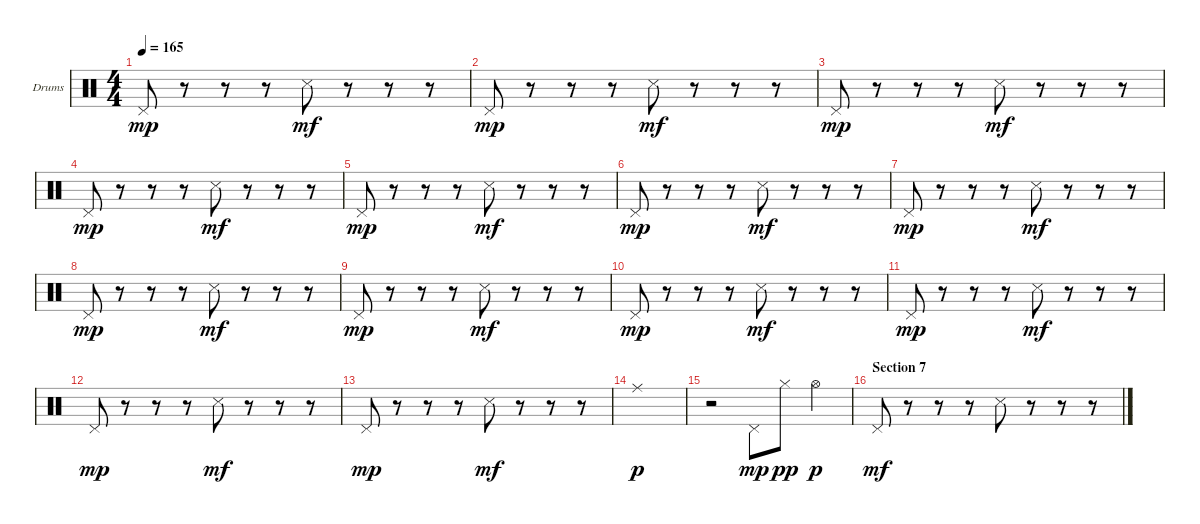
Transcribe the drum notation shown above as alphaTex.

\bracketExtendMode groupsimilarinstruments
\firstSystemTrackNameOrientation horizontal
\otherSystemsTrackNameOrientation horizontal
\track ("Drumkit" "Drums") {instrument percussion}
\staff {score}
\articulation defaults
\ts (4 4)
\tempo 165
\clef neutral
\ks c "Pedal Hi-Hat (hit)".8{dy mp}
r.8 r.8 r.8 "Snare (side stick) 3".8{dy mf} r.8 r.8 r.8 |
"Pedal Hi-Hat (hit)".8{dy mp} r.8 r.8 r.8 "Snare (side stick) 3".8{dy mf} r.8 r.8 r.8 |
"Pedal Hi-Hat (hit)".8{dy mp} r.8 r.8 r.8 "Snare (side stick) 3".8{dy mf} r.8 r.8 r.8 |
"Pedal Hi-Hat (hit)".8{dy mp} r.8 r.8 r.8 "Snare (side stick) 3".8{dy mf} r.8 r.8 r.8 |
"Pedal Hi-Hat (hit)".8{dy mp} r.8 r.8 r.8 "Snare (side stick) 3".8{dy mf} r.8 r.8 r.8 |
"Pedal Hi-Hat (hit)".8{dy mp} r.8 r.8 r.8 "Snare (side stick) 3".8{dy mf} r.8 r.8 r.8 |
"Pedal Hi-Hat (hit)".8{dy mp} r.8 r.8 r.8 "Snare (side stick) 3".8{dy mf} r.8 r.8 r.8 |
"Pedal Hi-Hat (hit)".8{dy mp} r.8 r.8 r.8 "Snare (side stick) 3".8{dy mf} r.8 r.8 r.8 |
"Pedal Hi-Hat (hit)".8{dy mp} r.8 r.8 r.8 "Snare (side stick) 3".8{dy mf} r.8 r.8 r.8 |
"Pedal Hi-Hat (hit)".8{dy mp} r.8 r.8 r.8 "Snare (side stick) 3".8{dy mf} r.8 r.8 r.8 |
"Pedal Hi-Hat (hit)".8{dy mp} r.8 r.8 r.8 "Snare (side stick) 3".8{dy mf} r.8 r.8 r.8 |
"Pedal Hi-Hat (hit)".8{dy mp} r.8 r.8 r.8 "Snare (side stick) 3".8{dy mf} r.8 r.8 r.8 |
"Pedal Hi-Hat (hit)".8{dy mp} r.8 r.8 r.8 "Snare (side stick) 3".8{dy mf} r.8 r.8 r.8 |
"Ride (middle)".1{dy p} |
r.2 "Pedal Hi-Hat (hit)".8{dy mp} "Hi-Hat (closed)".8{dy pp} "Hi-Hat (open)".4{dy p} |
\section ("" "Section 7")
"Pedal Hi-Hat (hit)".8{dy mf} r.8 r.8 r.8 "Snare (side stick) 3".8 r.8 r.8 r.8
